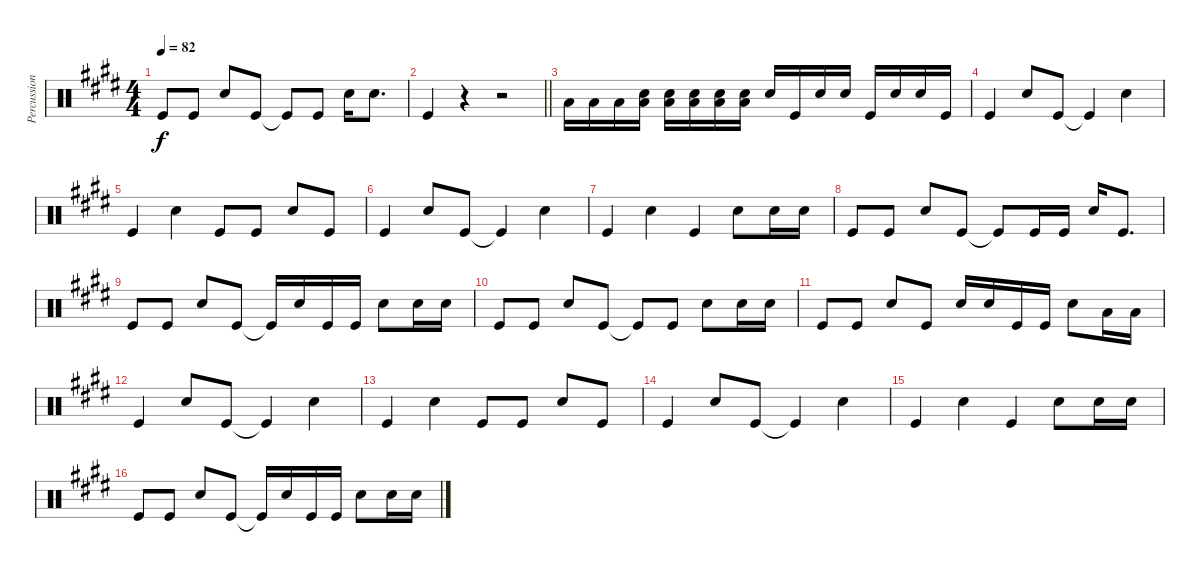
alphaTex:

\track ("Percussion" "Percussion") {instrument percussion}
\staff {score}
\articulation defaults
\ts (4 4)
\tempo 82
\clef neutral
\ks e "Kick (hit)".8{dy f} "Kick (hit)".8 "Snare (hit) 2".8 "Kick (hit)".8 "Kick (hit)"{t}.8 "Kick (hit)".8 "Snare (hit) 2".16 "Snare (hit) 2".8{d}
|
\barLineRight lightlight "Kick (hit)".4
r.4 r.2 |
"Low Floor Tom (hit)".16 "Low Floor Tom (hit)".16 "Low Floor Tom (hit)".16 ("Snare (hit) 2" "Low Floor Tom (hit)").16 ("Snare (hit) 2" "Low Floor Tom (hit)").16 ("Snare (hit) 2" "Low Floor Tom (hit)").16 ("Snare (hit) 2" "Low Floor Tom (hit)").16 ("Snare (hit) 2" "Low Floor Tom (hit)").16 "Snare (hit) 2".16 "Kick (hit)".16 "Snare (hit) 2".16 "Snare (hit) 2".16 "Kick (hit)".16 "Snare (hit) 2".16 "Snare (hit) 2".16 "Kick (hit)".16 |
"Kick (hit)".4 "Snare (hit) 2".8 "Kick (hit)".8 "Kick (hit)"{t}.4 "Snare (hit) 2".4 |
"Kick (hit)".4 "Snare (hit) 2".4 "Kick (hit)".8 "Kick (hit)".8 "Snare (hit) 2".8 "Kick (hit)".8 |
"Kick (hit)".4 "Snare (hit) 2".8 "Kick (hit)".8 "Kick (hit)"{t}.4 "Snare (hit) 2".4 |
"Kick (hit)".4 "Snare (hit) 2".4 "Kick (hit)".4 "Snare (hit) 2".8 "Snare (hit) 2".16 "Snare (hit) 2".16 |
"Kick (hit)".8 "Kick (hit)".8 "Snare (hit) 2".8 "Kick (hit)".8 "Kick (hit)"{t}.8 "Kick (hit)".16 "Kick (hit)".16 "Snare (hit) 2".16 "Kick (hit)".8{d} |
"Kick (hit)".8 "Kick (hit)".8 "Snare (hit) 2".8 "Kick (hit)".8 "Kick (hit)"{t}.16 "Snare (hit) 2".16 "Kick (hit)".16 "Kick (hit)".16 "Snare (hit) 2".8 "Snare (hit) 2".16 "Snare (hit) 2".16 |
"Kick (hit)".8 "Kick (hit)".8 "Snare (hit) 2".8 "Kick (hit)".8 "Kick (hit)"{t}.8 "Kick (hit)".8 "Snare (hit) 2".8 "Snare (hit) 2".16 "Snare (hit) 2".16 |
"Kick (hit)".8 "Kick (hit)".8 "Snare (hit) 2".8 "Kick (hit)".8 "Snare (hit) 2".16 "Snare (hit) 2".16 "Kick (hit)".16 "Kick (hit)".16 "Snare (hit) 2".8 "Low Tom (hit)".16 "Low Tom (hit)".16 |
"Kick (hit)".4 "Snare (hit) 2".8 "Kick (hit)".8 "Kick (hit)"{t}.4 "Snare (hit) 2".4 |
"Kick (hit)".4 "Snare (hit) 2".4 "Kick (hit)".8 "Kick (hit)".8 "Snare (hit) 2".8 "Kick (hit)".8 |
"Kick (hit)".4 "Snare (hit) 2".8 "Kick (hit)".8 "Kick (hit)"{t}.4 "Snare (hit) 2".4 |
"Kick (hit)".4 "Snare (hit) 2".4 "Kick (hit)".4 "Snare (hit) 2".8 "Snare (hit) 2".16 "Snare (hit) 2".16 |
"Kick (hit)".8 "Kick (hit)".8 "Snare (hit) 2".8 "Kick (hit)".8 "Kick (hit)"{t}.16 "Snare (hit) 2".16 "Kick (hit)".16 "Kick (hit)".16 "Snare (hit) 2".8 "Snare (hit) 2".16 "Snare (hit) 2".16
